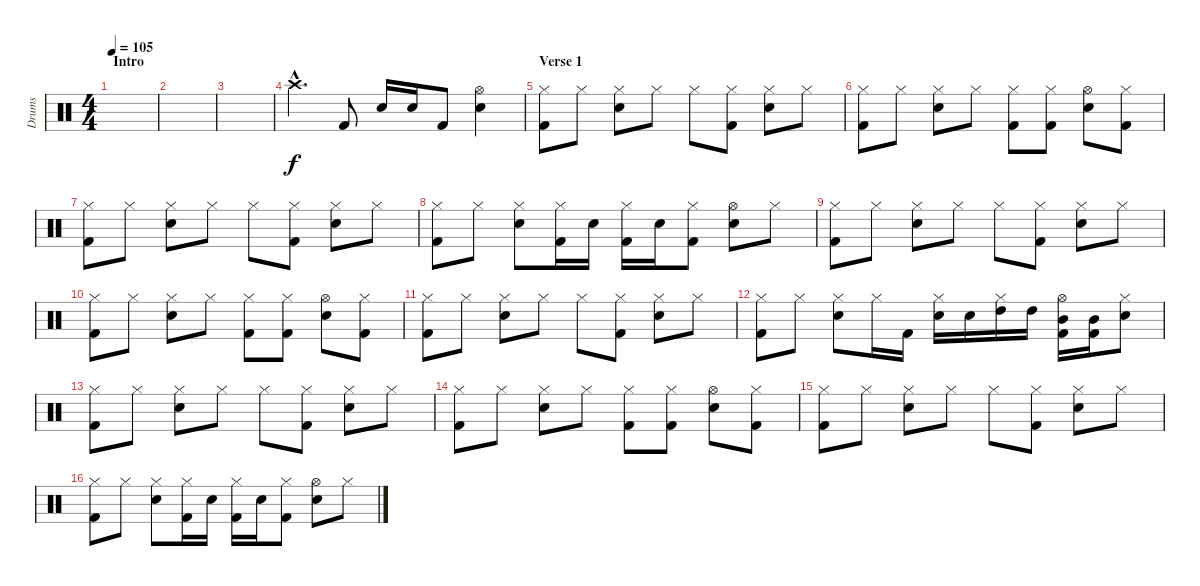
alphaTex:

\track ("Drums" "Drums") {instrument percussion}
\staff {score}
\articulation defaults
\ts (4 4)
\section ("" "Intro")
\tempo 105
\clef neutral
\ks c
|
|
|
"Crash high (hit)"{hac}.4{d} "Kick (hit) 2".8 "Electric Snare (hit)".16 "Electric Snare (hit)".16 "Kick (hit) 2".8 ("Hi-Hat (open)" "Electric Snare (hit)").4 |
\section ("" "Verse 1")
("Hi-Hat (closed)" "Kick (hit) 2").8 "Hi-Hat (closed)".8 ("Hi-Hat (closed)" "Electric Snare (hit)").8 "Hi-Hat (closed)".8 "Hi-Hat (closed)".8 ("Hi-Hat (closed)" "Kick (hit) 2").8 ("Hi-Hat (closed)" "Electric Snare (hit)").8 "Hi-Hat (closed)".8 |
("Hi-Hat (closed)" "Kick (hit) 2").8 "Hi-Hat (closed)".8 ("Hi-Hat (closed)" "Electric Snare (hit)").8 "Hi-Hat (closed)".8 ("Hi-Hat (closed)" "Kick (hit) 2").8 ("Hi-Hat (closed)" "Kick (hit) 2").8 ("Hi-Hat (open)" "Electric Snare (hit)").8 ("Hi-Hat (closed)" "Kick (hit) 2").8 |
("Hi-Hat (closed)" "Kick (hit) 2").8 "Hi-Hat (closed)".8 ("Hi-Hat (closed)" "Electric Snare (hit)").8 "Hi-Hat (closed)".8 "Hi-Hat (closed)".8 ("Hi-Hat (closed)" "Kick (hit) 2").8 ("Hi-Hat (closed)" "Electric Snare (hit)").8 "Hi-Hat (closed)".8 |
("Hi-Hat (closed)" "Kick (hit) 2").8 "Hi-Hat (closed)".8 ("Hi-Hat (closed)" "Electric Snare (hit)").8 ("Hi-Hat (closed)" "Kick (hit) 2").16 "Electric Snare (hit)".16 ("Hi-Hat (closed)" "Kick (hit) 2").16 "Electric Snare (hit)".16 ("Hi-Hat (closed)" "Kick (hit) 2").8 ("Hi-Hat (open)" "Electric Snare (hit)").8 "Hi-Hat (closed)".8 |
("Hi-Hat (closed)" "Kick (hit) 2").8 "Hi-Hat (closed)".8 ("Hi-Hat (closed)" "Electric Snare (hit)").8 "Hi-Hat (closed)".8 "Hi-Hat (closed)".8 ("Hi-Hat (closed)" "Kick (hit) 2").8 ("Hi-Hat (closed)" "Electric Snare (hit)").8 "Hi-Hat (closed)".8 |
("Hi-Hat (closed)" "Kick (hit) 2").8 "Hi-Hat (closed)".8 ("Hi-Hat (closed)" "Electric Snare (hit)").8 "Hi-Hat (closed)".8 ("Hi-Hat (closed)" "Kick (hit) 2").8 ("Hi-Hat (closed)" "Kick (hit) 2").8 ("Hi-Hat (open)" "Electric Snare (hit)").8 ("Hi-Hat (closed)" "Kick (hit) 2").8 |
("Hi-Hat (closed)" "Kick (hit) 2").8 "Hi-Hat (closed)".8 ("Hi-Hat (closed)" "Electric Snare (hit)").8 "Hi-Hat (closed)".8 "Hi-Hat (closed)".8 ("Hi-Hat (closed)" "Kick (hit) 2").8 ("Hi-Hat (closed)" "Electric Snare (hit)").8 "Hi-Hat (closed)".8 |
("Hi-Hat (closed)" "Kick (hit) 2").8 "Hi-Hat (closed)".8 ("Hi-Hat (closed)" "Electric Snare (hit)").8 "Hi-Hat (closed)".16 "Kick (hit) 2".16 ("Hi-Hat (closed)" "Electric Snare (hit)").16 "Electric Snare (hit)".16 ("Hi-Hat (closed)" "High Tom (hit)").16 "High Tom (hit)".16 ("Hi-Hat (open)" "Mid Tom (hit)" "Kick (hit) 2").16 ("Mid Tom (hit)" "Kick (hit) 2").16 ("Hi-Hat (closed)" "Electric Snare (hit)").8 |
("Hi-Hat (closed)" "Kick (hit) 2").8 "Hi-Hat (closed)".8 ("Hi-Hat (closed)" "Electric Snare (hit)").8 "Hi-Hat (closed)".8 "Hi-Hat (closed)".8 ("Hi-Hat (closed)" "Kick (hit) 2").8 ("Hi-Hat (closed)" "Electric Snare (hit)").8 "Hi-Hat (closed)".8 |
("Hi-Hat (closed)" "Kick (hit) 2").8 "Hi-Hat (closed)".8 ("Hi-Hat (closed)" "Electric Snare (hit)").8 "Hi-Hat (closed)".8 ("Hi-Hat (closed)" "Kick (hit) 2").8 ("Hi-Hat (closed)" "Kick (hit) 2").8 ("Hi-Hat (open)" "Electric Snare (hit)").8 ("Hi-Hat (closed)" "Kick (hit) 2").8 |
("Hi-Hat (closed)" "Kick (hit) 2").8 "Hi-Hat (closed)".8 ("Hi-Hat (closed)" "Electric Snare (hit)").8 "Hi-Hat (closed)".8 "Hi-Hat (closed)".8 ("Hi-Hat (closed)" "Kick (hit) 2").8 ("Hi-Hat (closed)" "Electric Snare (hit)").8 "Hi-Hat (closed)".8 |
("Hi-Hat (closed)" "Kick (hit) 2").8 "Hi-Hat (closed)".8 ("Hi-Hat (closed)" "Electric Snare (hit)").8 ("Hi-Hat (closed)" "Kick (hit) 2").16 "Electric Snare (hit)".16 ("Hi-Hat (closed)" "Kick (hit) 2").16 "Electric Snare (hit)".16 ("Hi-Hat (closed)" "Kick (hit) 2").8 ("Hi-Hat (open)" "Electric Snare (hit)").8 "Hi-Hat (closed)".8
